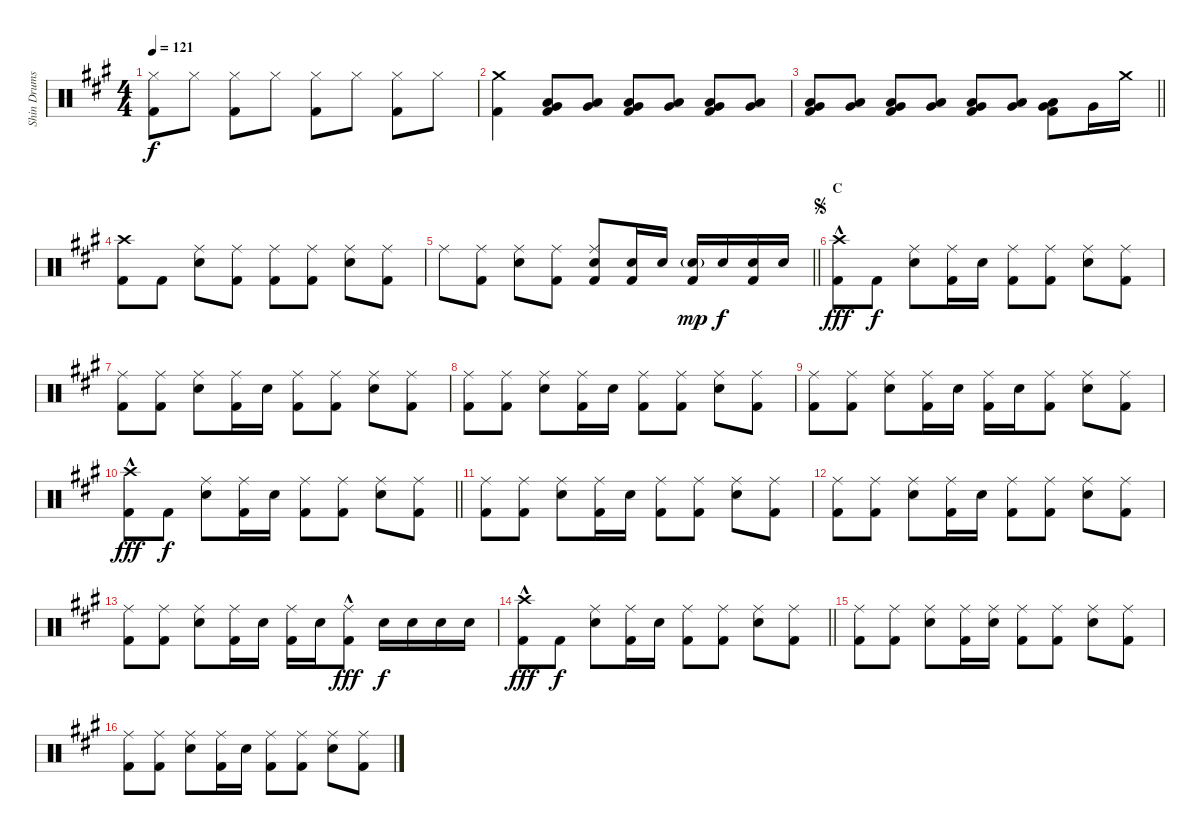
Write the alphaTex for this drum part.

\track ("Shin Drums" "Shin Drums") {instrument percussion}
\staff {score}
\articulation defaults
\ts (4 4)
\tempo 121
\clef neutral
\ks a
("Hi-Hat (closed)" "Kick (hit) 2").8{dy f} "Hi-Hat (closed)".8 ("Hi-Hat (closed)" "Kick (hit) 2").8 "Hi-Hat (closed)".8 ("Hi-Hat (closed)" "Kick (hit) 2").8 "Hi-Hat (closed)".8 ("Hi-Hat (closed)" "Kick (hit) 2").8 "Hi-Hat (closed)".8 |
("Crash medium (hit)" "Kick (hit) 2").4 ("Low Tom (hit)" "Very Low Tom (hit)" "Kick (hit) 2").8 ("Low Tom (hit)" "Very Low Tom (hit)").8 ("Low Tom (hit)" "Very Low Tom (hit)" "Kick (hit) 2").8 ("Low Tom (hit)" "Very Low Tom (hit)").8 ("Low Tom (hit)" "Very Low Tom (hit)" "Kick (hit) 2").8 ("Low Tom (hit)" "Very Low Tom (hit)").8 |
\barLineRight lightlight
("Low Tom (hit)" "Very Low Tom (hit)" "Kick (hit) 2").8 ("Low Tom (hit)" "Very Low Tom (hit)").8 ("Low Tom (hit)" "Very Low Tom (hit)" "Kick (hit) 2").8 ("Low Tom (hit)" "Very Low Tom (hit)").8 ("Low Tom (hit)" "Very Low Tom (hit)" "Kick (hit) 2").8 ("Low Tom (hit)" "Very Low Tom (hit)").8 ("Low Tom (hit)" "Very Low Tom (hit)" "Kick (hit) 2").8 "Very Low Tom (hit)".16 "Crash medium (hit)".16 |
\section ("" "")
("Crash high (hit)" "Kick (hit) 2").8 "Kick (hit) 2".8 ("Ride (middle)" "Snare (hit) 2").8 ("Ride (middle)" "Kick (hit) 2").8 ("Ride (middle)" "Kick (hit) 2").8 ("Ride (middle)" "Kick (hit) 2").8 ("Ride (middle)" "Snare (hit) 2").8 ("Ride (middle)" "Kick (hit) 2").8 |
\barLineRight lightlight "Ride (middle)".8
("Ride (middle)" "Kick (hit) 2").8 ("Ride (middle)" "Snare (hit) 2").8 ("Ride (middle)" "Kick (hit) 2").8 ("Ride (middle)" "Snare (hit) 2" "Kick (hit) 2").8 ("Snare (hit) 2" "Kick (hit) 2").16 "Snare (hit) 2".16 ("Snare (hit) 2"{g} "Kick (hit) 2").16{dy mp} "Snare (hit) 2".16{dy f} ("Snare (hit) 2" "Kick (hit) 2").16 "Snare (hit) 2".16 |
\section ("" "C")
\jump segno
("Crash high (hit)"{hac} "Kick (hit) 2"{hac}).8{dy fff} "Kick (hit) 2".8{dy f} ("Ride (middle)" "Snare (hit) 2").8 ("Ride (middle)" "Kick (hit) 2").16 "Snare (hit) 2".16 ("Ride (middle)" "Kick (hit) 2").8 ("Ride (middle)" "Kick (hit) 2").8 ("Ride (middle)" "Snare (hit) 2").8 ("Ride (middle)" "Kick (hit) 2").8 |
("Ride (middle)" "Kick (hit) 2").8 ("Ride (middle)" "Kick (hit) 2").8 ("Ride (middle)" "Snare (hit) 2").8 ("Ride (middle)" "Kick (hit) 2").16 "Snare (hit) 2".16 ("Ride (middle)" "Kick (hit) 2").8 ("Ride (middle)" "Kick (hit) 2").8 ("Ride (middle)" "Snare (hit) 2").8 ("Ride (middle)" "Kick (hit) 2").8 |
("Ride (middle)" "Kick (hit) 2").8 ("Ride (middle)" "Kick (hit) 2").8 ("Ride (middle)" "Snare (hit) 2").8 ("Ride (middle)" "Kick (hit) 2").16 "Snare (hit) 2".16 ("Ride (middle)" "Kick (hit) 2").8 ("Ride (middle)" "Kick (hit) 2").8 ("Ride (middle)" "Snare (hit) 2").8 ("Ride (middle)" "Kick (hit) 2").8 |
("Ride (middle)" "Kick (hit) 2").8 ("Ride (middle)" "Kick (hit) 2").8 ("Ride (middle)" "Snare (hit) 2").8 ("Ride (middle)" "Kick (hit) 2").16 "Snare (hit) 2".16 ("Ride (middle)" "Kick (hit) 2").16 "Snare (hit) 2".16 ("Ride (middle)" "Kick (hit) 2").8 ("Ride (middle)" "Snare (hit) 2").8 ("Ride (middle)" "Kick (hit) 2").8 |
\barLineRight lightlight
("Crash high (hit)"{hac} "Kick (hit) 2"{hac}).8{dy fff} "Kick (hit) 2".8{dy f} ("Ride (middle)" "Snare (hit) 2").8 ("Ride (middle)" "Kick (hit) 2").16 "Snare (hit) 2".16 ("Ride (middle)" "Kick (hit) 2").8 ("Ride (middle)" "Kick (hit) 2").8 ("Ride (middle)" "Snare (hit) 2").8 ("Ride (middle)" "Kick (hit) 2").8 |
\section ("" "")
("Ride (middle)" "Kick (hit) 2").8 ("Ride (middle)" "Kick (hit) 2").8 ("Ride (middle)" "Snare (hit) 2").8 ("Ride (middle)" "Kick (hit) 2").16 "Snare (hit) 2".16 ("Ride (middle)" "Kick (hit) 2").8 ("Ride (middle)" "Kick (hit) 2").8 ("Ride (middle)" "Snare (hit) 2").8 ("Ride (middle)" "Kick (hit) 2").8 |
("Ride (middle)" "Kick (hit) 2").8 ("Ride (middle)" "Kick (hit) 2").8 ("Ride (middle)" "Snare (hit) 2").8 ("Ride (middle)" "Kick (hit) 2").16 "Snare (hit) 2".16 ("Ride (middle)" "Kick (hit) 2").8 ("Ride (middle)" "Kick (hit) 2").8 ("Ride (middle)" "Snare (hit) 2").8 ("Ride (middle)" "Kick (hit) 2").8 |
("Ride (middle)" "Kick (hit) 2").8 ("Ride (middle)" "Kick (hit) 2").8 ("Ride (middle)" "Snare (hit) 2").8 ("Ride (middle)" "Kick (hit) 2").16 "Snare (hit) 2".16 ("Ride (middle)" "Kick (hit) 2").16 "Snare (hit) 2".16 ("Ride (middle)"{hac} "Kick (hit) 2"{hac}).8{dy fff} "Snare (hit) 2".16{dy f} "Snare (hit) 2".16 "Snare (hit) 2".16 "Snare (hit) 2".16 |
\barLineRight lightlight
("Crash high (hit)"{hac} "Kick (hit) 2"{hac}).8{dy fff} "Kick (hit) 2".8{dy f} ("Ride (middle)" "Snare (hit) 2").8 ("Ride (middle)" "Kick (hit) 2").16 "Snare (hit) 2".16 ("Ride (middle)" "Kick (hit) 2").8 ("Ride (middle)" "Kick (hit) 2").8 ("Ride (middle)" "Snare (hit) 2").8 ("Ride (middle)" "Kick (hit) 2").8 |
("Ride (middle)" "Kick (hit) 2").8 ("Ride (middle)" "Kick (hit) 2").8 ("Ride (middle)" "Snare (hit) 2").8 ("Ride (middle)" "Kick (hit) 2").16 ("Ride (middle)" "Snare (hit) 2").16 ("Ride (middle)" "Kick (hit) 2").8 ("Ride (middle)" "Kick (hit) 2").8 ("Ride (middle)" "Snare (hit) 2").8 ("Ride (middle)" "Kick (hit) 2").8 |
("Ride (middle)" "Kick (hit) 2").8 ("Ride (middle)" "Kick (hit) 2").8 ("Ride (middle)" "Snare (hit) 2").8 ("Ride (middle)" "Kick (hit) 2").16 "Snare (hit) 2".16 ("Ride (middle)" "Kick (hit) 2").8 ("Ride (middle)" "Kick (hit) 2").8 ("Ride (middle)" "Snare (hit) 2").8 ("Ride (middle)" "Kick (hit) 2").8
